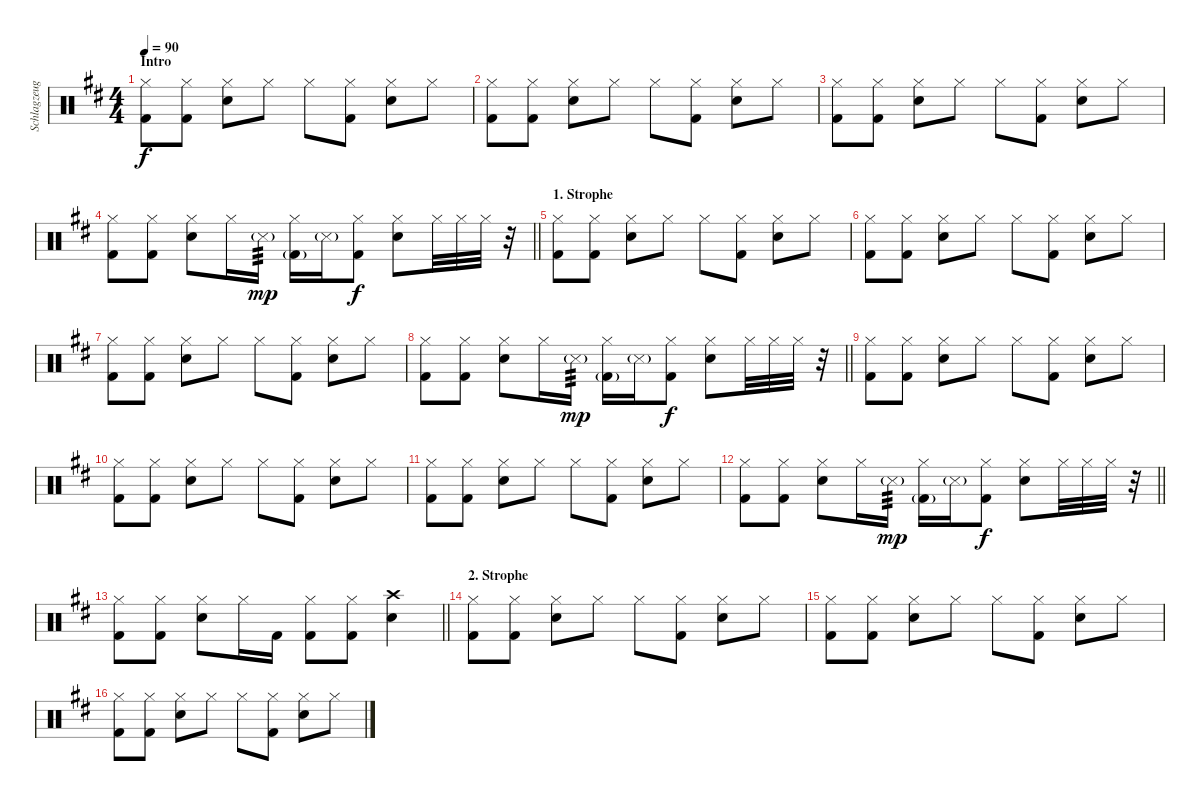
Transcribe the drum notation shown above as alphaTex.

\track ("Schlagzeug" "Schlagzeug") {instrument percussion}
\staff {score}
\articulation defaults
\ts (4 4)
\section ("" "Intro")
\tempo 90
\clef neutral
\ks d
("Hi-Hat (closed)" "Kick (hit) 2").8{dy f} ("Hi-Hat (closed)" "Kick (hit) 2").8 ("Hi-Hat (closed)" "Electric Snare (hit)").8 "Hi-Hat (closed)".8 "Hi-Hat (closed)".8 ("Hi-Hat (closed)" "Kick (hit) 2").8 ("Hi-Hat (closed)" "Electric Snare (hit)").8 "Hi-Hat (closed)".8 |
("Hi-Hat (closed)" "Kick (hit) 2").8 ("Hi-Hat (closed)" "Kick (hit) 2").8 ("Hi-Hat (closed)" "Electric Snare (hit)").8 "Hi-Hat (closed)".8 "Hi-Hat (closed)".8 ("Hi-Hat (closed)" "Kick (hit) 2").8 ("Hi-Hat (closed)" "Electric Snare (hit)").8 "Hi-Hat (closed)".8 |
("Hi-Hat (closed)" "Kick (hit) 2").8 ("Hi-Hat (closed)" "Kick (hit) 2").8 ("Hi-Hat (closed)" "Electric Snare (hit)").8 "Hi-Hat (closed)".8 "Hi-Hat (closed)".8 ("Hi-Hat (closed)" "Kick (hit) 2").8 ("Hi-Hat (closed)" "Electric Snare (hit)").8 "Hi-Hat (closed)".8 |
\barLineRight lightlight
("Hi-Hat (closed)" "Kick (hit) 2").8 ("Hi-Hat (closed)" "Kick (hit) 2").8 ("Hi-Hat (closed)" "Electric Snare (hit)").8 "Hi-Hat (closed)".16 "Snare (side stick) 3"{g}.16{tp 3 dy mp} ("Hi-Hat (closed)" "Kick (hit) 2"{g}).16 "Snare (side stick) 3"{g}.16 ("Hi-Hat (closed)" "Kick (hit) 2").8{dy f} ("Hi-Hat (closed)" "Electric Snare (hit)").8 "Hi-Hat (closed)".32 "Hi-Hat (closed)".32 "Hi-Hat (closed)".32 r.32 |
\section ("" "1. Strophe")
("Hi-Hat (closed)" "Kick (hit) 2").8 ("Hi-Hat (closed)" "Kick (hit) 2").8 ("Hi-Hat (closed)" "Electric Snare (hit)").8 "Hi-Hat (closed)".8 "Hi-Hat (closed)".8 ("Hi-Hat (closed)" "Kick (hit) 2").8 ("Hi-Hat (closed)" "Electric Snare (hit)").8 "Hi-Hat (closed)".8 |
("Hi-Hat (closed)" "Kick (hit) 2").8 ("Hi-Hat (closed)" "Kick (hit) 2").8 ("Hi-Hat (closed)" "Electric Snare (hit)").8 "Hi-Hat (closed)".8 "Hi-Hat (closed)".8 ("Hi-Hat (closed)" "Kick (hit) 2").8 ("Hi-Hat (closed)" "Electric Snare (hit)").8 "Hi-Hat (closed)".8 |
("Hi-Hat (closed)" "Kick (hit) 2").8 ("Hi-Hat (closed)" "Kick (hit) 2").8 ("Hi-Hat (closed)" "Electric Snare (hit)").8 "Hi-Hat (closed)".8 "Hi-Hat (closed)".8 ("Hi-Hat (closed)" "Kick (hit) 2").8 ("Hi-Hat (closed)" "Electric Snare (hit)").8 "Hi-Hat (closed)".8 |
\barLineRight lightlight
("Hi-Hat (closed)" "Kick (hit) 2").8 ("Hi-Hat (closed)" "Kick (hit) 2").8 ("Hi-Hat (closed)" "Electric Snare (hit)").8 "Hi-Hat (closed)".16 "Snare (side stick) 3"{g}.16{tp 3 dy mp} ("Hi-Hat (closed)" "Kick (hit) 2"{g}).16 "Snare (side stick) 3"{g}.16 ("Hi-Hat (closed)" "Kick (hit) 2").8{dy f} ("Hi-Hat (closed)" "Electric Snare (hit)").8 "Hi-Hat (closed)".32 "Hi-Hat (closed)".32 "Hi-Hat (closed)".32 r.32 |
("Hi-Hat (closed)" "Kick (hit) 2").8 ("Hi-Hat (closed)" "Kick (hit) 2").8 ("Hi-Hat (closed)" "Electric Snare (hit)").8 "Hi-Hat (closed)".8 "Hi-Hat (closed)".8 ("Hi-Hat (closed)" "Kick (hit) 2").8 ("Hi-Hat (closed)" "Electric Snare (hit)").8 "Hi-Hat (closed)".8 |
("Hi-Hat (closed)" "Kick (hit) 2").8 ("Hi-Hat (closed)" "Kick (hit) 2").8 ("Hi-Hat (closed)" "Electric Snare (hit)").8 "Hi-Hat (closed)".8 "Hi-Hat (closed)".8 ("Hi-Hat (closed)" "Kick (hit) 2").8 ("Hi-Hat (closed)" "Electric Snare (hit)").8 "Hi-Hat (closed)".8 |
("Hi-Hat (closed)" "Kick (hit) 2").8 ("Hi-Hat (closed)" "Kick (hit) 2").8 ("Hi-Hat (closed)" "Electric Snare (hit)").8 "Hi-Hat (closed)".8 "Hi-Hat (closed)".8 ("Hi-Hat (closed)" "Kick (hit) 2").8 ("Hi-Hat (closed)" "Electric Snare (hit)").8 "Hi-Hat (closed)".8 |
\barLineRight lightlight
("Hi-Hat (closed)" "Kick (hit) 2").8 ("Hi-Hat (closed)" "Kick (hit) 2").8 ("Hi-Hat (closed)" "Electric Snare (hit)").8 "Hi-Hat (closed)".16 "Snare (side stick) 3"{g}.16{tp 3 dy mp} ("Hi-Hat (closed)" "Kick (hit) 2"{g}).16 "Snare (side stick) 3"{g}.16 ("Hi-Hat (closed)" "Kick (hit) 2").8{dy f} ("Hi-Hat (closed)" "Electric Snare (hit)").8 "Hi-Hat (closed)".32 "Hi-Hat (closed)".32 "Hi-Hat (closed)".32 r.32 |
\barLineRight lightlight
("Hi-Hat (closed)" "Kick (hit) 2").8 ("Hi-Hat (closed)" "Kick (hit) 2").8 ("Hi-Hat (closed)" "Electric Snare (hit)").8 "Hi-Hat (closed)".16 "Kick (hit) 2".16 ("Hi-Hat (closed)" "Kick (hit) 2").8 ("Hi-Hat (closed)" "Kick (hit) 2").8 ("Crash high (hit)" "Electric Snare (hit)").4 |
\section ("" "2. Strophe")
("Hi-Hat (closed)" "Kick (hit) 2").8 ("Hi-Hat (closed)" "Kick (hit) 2").8 ("Hi-Hat (closed)" "Electric Snare (hit)").8 "Hi-Hat (closed)".8 "Hi-Hat (closed)".8 ("Hi-Hat (closed)" "Kick (hit) 2").8 ("Hi-Hat (closed)" "Electric Snare (hit)").8 "Hi-Hat (closed)".8 |
("Hi-Hat (closed)" "Kick (hit) 2").8 ("Hi-Hat (closed)" "Kick (hit) 2").8 ("Hi-Hat (closed)" "Electric Snare (hit)").8 "Hi-Hat (closed)".8 "Hi-Hat (closed)".8 ("Hi-Hat (closed)" "Kick (hit) 2").8 ("Hi-Hat (closed)" "Electric Snare (hit)").8 "Hi-Hat (closed)".8 |
("Hi-Hat (closed)" "Kick (hit) 2").8 ("Hi-Hat (closed)" "Kick (hit) 2").8 ("Hi-Hat (closed)" "Electric Snare (hit)").8 "Hi-Hat (closed)".8 "Hi-Hat (closed)".8 ("Hi-Hat (closed)" "Kick (hit) 2").8 ("Hi-Hat (closed)" "Electric Snare (hit)").8 "Hi-Hat (closed)".8
